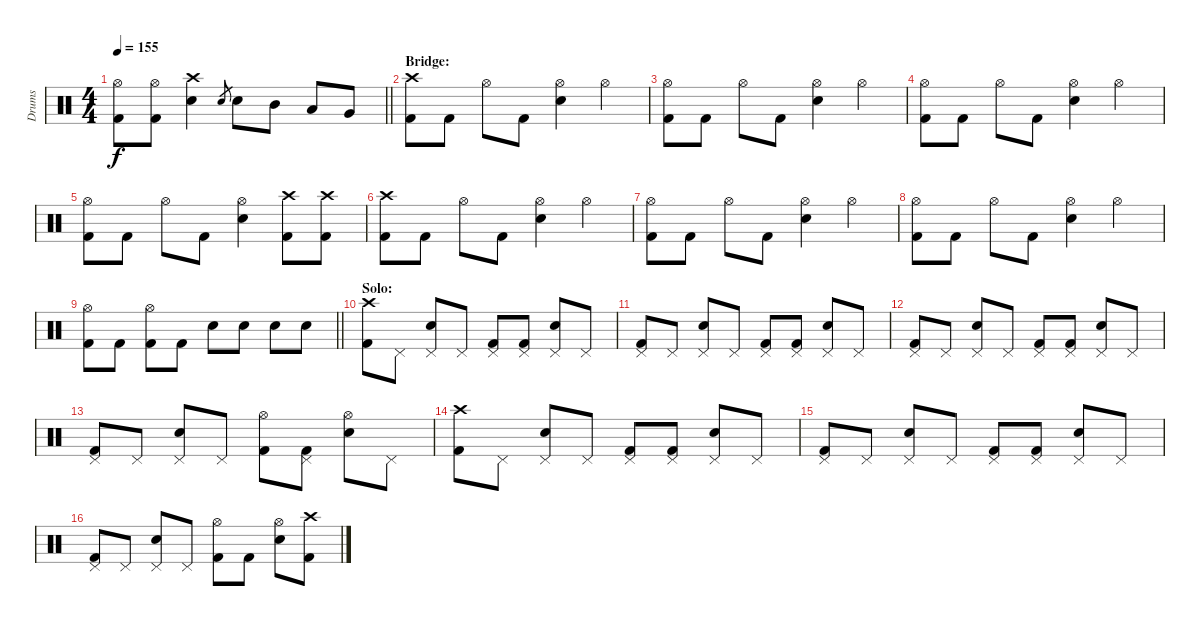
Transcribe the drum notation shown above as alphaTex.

\track ("Drums" "Drums") {instrument percussion}
\staff {score}
\articulation defaults
\ts (4 4)
\tempo 155
\clef neutral
\barLineRight lightlight
\ks c
("Hi-Hat (open)"{t} "Kick (hit) 2"{t}).8{dy f} ("Hi-Hat (open)" "Kick (hit) 2").8 ("Crash high (hit)" "Electric Snare (hit)").4 "Electric Snare (hit)".8{gr} "Electric Snare (hit)".8 "Mid Tom (hit)".8 "Low Tom (hit)".8 "Very Low Tom (hit)".8 |
\section ("" "Bridge:")
("Crash high (hit)" "Kick (hit) 2").8 "Kick (hit) 2".8 "Hi-Hat (open)".8 "Kick (hit) 2".8 ("Hi-Hat (open)" "Electric Snare (hit)").4 "Hi-Hat (open)".4 |
("Hi-Hat (open)" "Kick (hit) 2").8 "Kick (hit) 2".8 "Hi-Hat (open)".8 "Kick (hit) 2".8 ("Hi-Hat (open)" "Electric Snare (hit)").4 "Hi-Hat (open)".4 |
("Hi-Hat (open)" "Kick (hit) 2").8 "Kick (hit) 2".8 "Hi-Hat (open)".8 "Kick (hit) 2".8 ("Hi-Hat (open)" "Electric Snare (hit)").4 "Hi-Hat (open)".4 |
("Hi-Hat (open)" "Kick (hit) 2").8 "Kick (hit) 2".8 "Hi-Hat (open)".8 "Kick (hit) 2".8 ("Hi-Hat (open)" "Electric Snare (hit)").4 ("Crash high (hit)" "Kick (hit) 2").8 ("Crash high (hit)" "Kick (hit) 2").8 |
("Crash high (hit)" "Kick (hit) 2").8 "Kick (hit) 2".8 "Hi-Hat (open)".8 "Kick (hit) 2".8 ("Hi-Hat (open)" "Electric Snare (hit)").4 "Hi-Hat (open)".4 |
("Hi-Hat (open)" "Kick (hit) 2").8 "Kick (hit) 2".8 "Hi-Hat (open)".8 "Kick (hit) 2".8 ("Hi-Hat (open)" "Electric Snare (hit)").4 "Hi-Hat (open)".4 |
("Hi-Hat (open)" "Kick (hit) 2").8 "Kick (hit) 2".8 "Hi-Hat (open)".8 "Kick (hit) 2".8 ("Hi-Hat (open)" "Electric Snare (hit)").4 "Hi-Hat (open)".4 |
\barLineRight lightlight
("Hi-Hat (open)" "Kick (hit) 2").8 "Kick (hit) 2".8 ("Hi-Hat (open)" "Kick (hit) 2").8 "Kick (hit) 2".8 "Electric Snare (hit)".8 "Electric Snare (hit)".8 "Electric Snare (hit)".8 "Electric Snare (hit)".8 |
\section ("" "Solo:")
("Crash high (hit)" "Kick (hit) 2").8 "Pedal Hi-Hat (hit)".8 ("Pedal Hi-Hat (hit)" "Electric Snare (hit)").8 "Pedal Hi-Hat (hit)".8 ("Pedal Hi-Hat (hit)" "Kick (hit) 2").8 ("Pedal Hi-Hat (hit)" "Kick (hit) 2").8 ("Pedal Hi-Hat (hit)" "Electric Snare (hit)").8 "Pedal Hi-Hat (hit)".8 |
("Pedal Hi-Hat (hit)" "Kick (hit) 2").8 "Pedal Hi-Hat (hit)".8 ("Pedal Hi-Hat (hit)" "Electric Snare (hit)").8 "Pedal Hi-Hat (hit)".8 ("Pedal Hi-Hat (hit)" "Kick (hit) 2").8 ("Pedal Hi-Hat (hit)" "Kick (hit) 2").8 ("Pedal Hi-Hat (hit)" "Electric Snare (hit)").8 "Pedal Hi-Hat (hit)".8 |
("Pedal Hi-Hat (hit)" "Kick (hit) 2").8 "Pedal Hi-Hat (hit)".8 ("Pedal Hi-Hat (hit)" "Electric Snare (hit)").8 "Pedal Hi-Hat (hit)".8 ("Pedal Hi-Hat (hit)" "Kick (hit) 2").8 ("Pedal Hi-Hat (hit)" "Kick (hit) 2").8 ("Pedal Hi-Hat (hit)" "Electric Snare (hit)").8 "Pedal Hi-Hat (hit)".8 |
("Pedal Hi-Hat (hit)" "Kick (hit) 2").8 "Pedal Hi-Hat (hit)".8 ("Pedal Hi-Hat (hit)" "Electric Snare (hit)").8 "Pedal Hi-Hat (hit)".8 ("Hi-Hat (open)" "Kick (hit) 2").8 ("Pedal Hi-Hat (hit)" "Kick (hit) 2").8 ("Hi-Hat (open)" "Electric Snare (hit)").8 "Pedal Hi-Hat (hit)".8 |
("Crash high (hit)" "Kick (hit) 2").8 "Pedal Hi-Hat (hit)".8 ("Pedal Hi-Hat (hit)" "Electric Snare (hit)").8 "Pedal Hi-Hat (hit)".8 ("Pedal Hi-Hat (hit)" "Kick (hit) 2").8 ("Pedal Hi-Hat (hit)" "Kick (hit) 2").8 ("Pedal Hi-Hat (hit)" "Electric Snare (hit)").8 "Pedal Hi-Hat (hit)".8 |
("Pedal Hi-Hat (hit)" "Kick (hit) 2").8 "Pedal Hi-Hat (hit)".8 ("Pedal Hi-Hat (hit)" "Electric Snare (hit)").8 "Pedal Hi-Hat (hit)".8 ("Pedal Hi-Hat (hit)" "Kick (hit) 2").8 ("Pedal Hi-Hat (hit)" "Kick (hit) 2").8 ("Pedal Hi-Hat (hit)" "Electric Snare (hit)").8 "Pedal Hi-Hat (hit)".8 |
("Pedal Hi-Hat (hit)" "Kick (hit) 2").8 "Pedal Hi-Hat (hit)".8 ("Pedal Hi-Hat (hit)" "Electric Snare (hit)").8 "Pedal Hi-Hat (hit)".8 ("Hi-Hat (open)" "Kick (hit) 2").8 "Kick (hit) 2".8 ("Hi-Hat (open)" "Electric Snare (hit)").8 ("Crash high (hit)" "Kick (hit) 2").8
